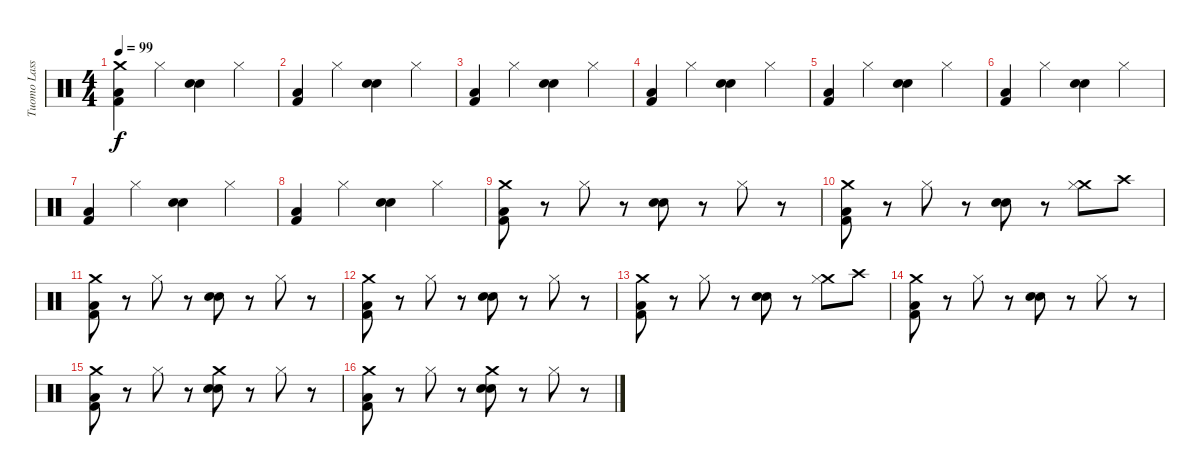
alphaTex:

\track ("Tuomo Lassila" "Tuomo Lass") {instrument percussion}
\staff {score}
\articulation defaults
\ts (4 4)
\tempo 99
\clef neutral
\ks c
("Crash medium (hit)" "Kick (hit) 2" "Low Floor Tom (hit)").4{dy f} "Hi-Hat (closed)".4 ("Electric Snare (hit)" "Snare (hit) 2").4 "Hi-Hat (closed)".4 |
("Kick (hit) 2" "Low Floor Tom (hit)").4 "Hi-Hat (closed)".4 ("Electric Snare (hit)" "Snare (hit) 2").4 "Hi-Hat (closed)".4 |
("Kick (hit) 2" "Low Floor Tom (hit)").4 "Hi-Hat (closed)".4 ("Electric Snare (hit)" "Snare (hit) 2").4 "Hi-Hat (closed)".4 |
("Kick (hit) 2" "Low Floor Tom (hit)").4 "Hi-Hat (closed)".4 ("Electric Snare (hit)" "Snare (hit) 2").4 "Hi-Hat (closed)".4 |
("Kick (hit) 2" "Low Floor Tom (hit)").4 "Hi-Hat (closed)".4 ("Electric Snare (hit)" "Snare (hit) 2").4 "Hi-Hat (closed)".4 |
("Kick (hit) 2" "Low Floor Tom (hit)").4 "Hi-Hat (closed)".4 ("Electric Snare (hit)" "Snare (hit) 2").4 "Hi-Hat (closed)".4 |
("Kick (hit) 2" "Low Floor Tom (hit)").4 "Hi-Hat (closed)".4 ("Electric Snare (hit)" "Snare (hit) 2").4 "Hi-Hat (closed)".4 |
("Kick (hit) 2" "Low Floor Tom (hit)").4 "Hi-Hat (closed)".4 ("Electric Snare (hit)" "Snare (hit) 2").4 "Hi-Hat (closed)".4 |
("Crash medium (hit)" "Kick (hit) 2" "Low Floor Tom (hit)").8 r.8 "Hi-Hat (closed)".8 r.8 ("Electric Snare (hit)" "Snare (hit) 2").8 r.8 "Hi-Hat (closed)".8 r.8 |
("Crash medium (hit)" "Kick (hit) 2" "Low Floor Tom (hit)").8 r.8 "Hi-Hat (closed)".8 r.8 ("Electric Snare (hit)" "Snare (hit) 2").8 r.8 ("Crash medium (hit)" "Hi-Hat (closed)").8 "Crash high (hit)".8 |
("Crash medium (hit)" "Kick (hit) 2" "Low Floor Tom (hit)").8 r.8 "Hi-Hat (closed)".8 r.8 ("Electric Snare (hit)" "Snare (hit) 2").8 r.8 "Hi-Hat (closed)".8 r.8 |
("Crash medium (hit)" "Kick (hit) 2" "Low Floor Tom (hit)").8 r.8 "Hi-Hat (closed)".8 r.8 ("Electric Snare (hit)" "Snare (hit) 2").8 r.8 "Hi-Hat (closed)".8 r.8 |
("Crash medium (hit)" "Kick (hit) 2" "Low Floor Tom (hit)").8 r.8 "Hi-Hat (closed)".8 r.8 ("Electric Snare (hit)" "Snare (hit) 2").8 r.8 ("Crash medium (hit)" "Hi-Hat (closed)").8 "Crash high (hit)".8 |
("Crash medium (hit)" "Kick (hit) 2" "Low Floor Tom (hit)").8 r.8 "Hi-Hat (closed)".8 r.8 ("Electric Snare (hit)" "Snare (hit) 2").8 r.8 "Hi-Hat (closed)".8 r.8 |
("Crash medium (hit)" "Kick (hit) 2" "Low Floor Tom (hit)").8 r.8 "Hi-Hat (closed)".8 r.8 ("Crash medium (hit)" "Electric Snare (hit)" "Snare (hit) 2").8 r.8 "Hi-Hat (closed)".8 r.8 |
("Crash medium (hit)" "Kick (hit) 2" "Low Floor Tom (hit)").8 r.8 "Hi-Hat (closed)".8 r.8 ("Crash medium (hit)" "Electric Snare (hit)" "Snare (hit) 2").8 r.8 "Hi-Hat (closed)".8 r.8
